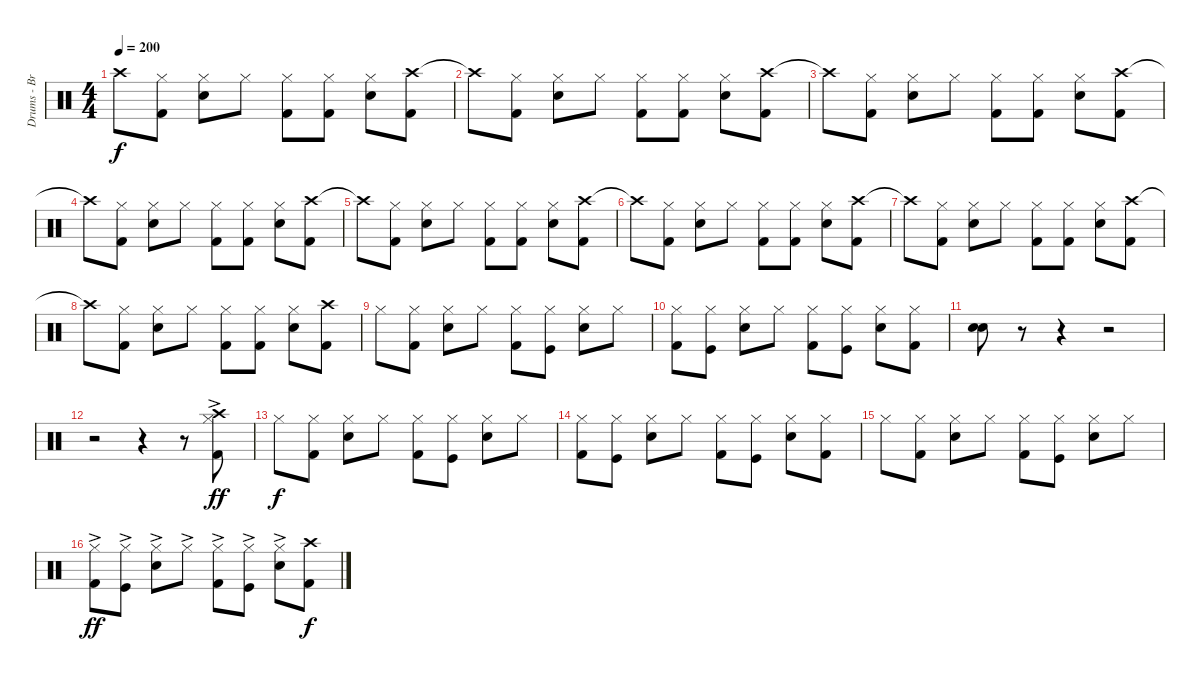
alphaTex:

\track ("Drums - Brandon Barnes" "Drums - Br") {instrument percussion}
\staff {score}
\articulation defaults
\ts (4 4)
\tempo 200
\clef neutral
\ks c "Crash high (hit)"{t}.8{dy f}
("Kick (hit) 2" "Hi-Hat (closed)").8 ("Hi-Hat (closed)" "Snare (hit) 2").8 "Hi-Hat (closed)".8 ("Hi-Hat (closed)" "Kick (hit) 2").8 ("Kick (hit) 2" "Hi-Hat (closed)").8 ("Hi-Hat (closed)" "Snare (hit) 2").8 ("Crash high (hit)" "Kick (hit) 2").8 |
"Crash high (hit)"{t}.8 ("Kick (hit) 2" "Hi-Hat (closed)").8 ("Hi-Hat (closed)" "Snare (hit) 2").8 "Hi-Hat (closed)".8 ("Hi-Hat (closed)" "Kick (hit) 2").8 ("Kick (hit) 2" "Hi-Hat (closed)").8 ("Hi-Hat (closed)" "Snare (hit) 2").8 ("Crash high (hit)" "Kick (hit) 2").8 |
"Crash high (hit)"{t}.8 ("Kick (hit) 2" "Hi-Hat (closed)").8 ("Hi-Hat (closed)" "Snare (hit) 2").8 "Hi-Hat (closed)".8 ("Hi-Hat (closed)" "Kick (hit) 2").8 ("Kick (hit) 2" "Hi-Hat (closed)").8 ("Hi-Hat (closed)" "Snare (hit) 2").8 ("Crash high (hit)" "Kick (hit) 2").8 |
"Crash high (hit)"{t}.8 ("Kick (hit) 2" "Hi-Hat (closed)").8 ("Hi-Hat (closed)" "Snare (hit) 2").8 "Hi-Hat (closed)".8 ("Hi-Hat (closed)" "Kick (hit) 2").8 ("Kick (hit) 2" "Hi-Hat (closed)").8 ("Hi-Hat (closed)" "Snare (hit) 2").8 ("Crash high (hit)" "Kick (hit) 2").8 |
"Crash high (hit)"{t}.8 ("Kick (hit) 2" "Hi-Hat (closed)").8 ("Hi-Hat (closed)" "Snare (hit) 2").8 "Hi-Hat (closed)".8 ("Hi-Hat (closed)" "Kick (hit) 2").8 ("Kick (hit) 2" "Hi-Hat (closed)").8 ("Hi-Hat (closed)" "Snare (hit) 2").8 ("Crash high (hit)" "Kick (hit) 2").8 |
"Crash high (hit)"{t}.8 ("Kick (hit) 2" "Hi-Hat (closed)").8 ("Hi-Hat (closed)" "Snare (hit) 2").8 "Hi-Hat (closed)".8 ("Hi-Hat (closed)" "Kick (hit) 2").8 ("Kick (hit) 2" "Hi-Hat (closed)").8 ("Hi-Hat (closed)" "Snare (hit) 2").8 ("Crash high (hit)" "Kick (hit) 2").8 |
"Crash high (hit)"{t}.8 ("Kick (hit) 2" "Hi-Hat (closed)").8 ("Hi-Hat (closed)" "Snare (hit) 2").8 "Hi-Hat (closed)".8 ("Hi-Hat (closed)" "Kick (hit) 2").8 ("Kick (hit) 2" "Hi-Hat (closed)").8 ("Hi-Hat (closed)" "Snare (hit) 2").8 ("Crash high (hit)" "Kick (hit) 2").8 |
"Crash high (hit)"{t}.8 ("Kick (hit) 2" "Hi-Hat (closed)").8 ("Hi-Hat (closed)" "Snare (hit) 2").8 "Hi-Hat (closed)".8 ("Hi-Hat (closed)" "Kick (hit) 2").8 ("Kick (hit) 2" "Hi-Hat (closed)").8 ("Hi-Hat (closed)" "Snare (hit) 2").8 ("Crash high (hit)" "Kick (hit) 2").8 |
"Hi-Hat (closed)".8 ("Hi-Hat (closed)" "Kick (hit) 2").8 ("Hi-Hat (closed)" "Snare (hit) 2").8 "Hi-Hat (closed)".8 ("Kick (hit) 2" "Hi-Hat (closed)").8 ("Hi-Hat (closed)" "Kick (hit)").8 ("Snare (hit) 2" "Hi-Hat (closed)").8 "Hi-Hat (closed)".8 |
("Kick (hit) 2" "Hi-Hat (closed)").8 ("Hi-Hat (closed)" "Kick (hit)").8 ("Snare (hit) 2" "Hi-Hat (closed)").8 "Hi-Hat (closed)".8 ("Kick (hit) 2" "Hi-Hat (closed)").8 ("Hi-Hat (closed)" "Kick (hit)").8 ("Snare (hit) 2" "Hi-Hat (closed)").8 ("Hi-Hat (closed)" "Kick (hit) 2").8 |
("Snare (hit) 2" "Electric Snare (hit)").8 r.8 r.4 r.2 |
r.2 r.4 r.8 ("Kick (hit) 2" "Hi-Hat (closed)"{ac} "Crash high (hit)").8{dy ff} |
"Hi-Hat (closed)".8{dy f} ("Hi-Hat (closed)" "Kick (hit) 2").8 ("Hi-Hat (closed)" "Snare (hit) 2").8 "Hi-Hat (closed)".8 ("Kick (hit) 2" "Hi-Hat (closed)").8 ("Hi-Hat (closed)" "Kick (hit)").8 ("Snare (hit) 2" "Hi-Hat (closed)").8 "Hi-Hat (closed)".8 |
("Kick (hit) 2" "Hi-Hat (closed)").8 ("Hi-Hat (closed)" "Kick (hit)").8 ("Snare (hit) 2" "Hi-Hat (closed)").8 "Hi-Hat (closed)".8 ("Kick (hit) 2" "Hi-Hat (closed)").8 ("Hi-Hat (closed)" "Kick (hit)").8 ("Snare (hit) 2" "Hi-Hat (closed)").8 ("Hi-Hat (closed)" "Kick (hit) 2").8 |
"Hi-Hat (closed)".8 ("Hi-Hat (closed)" "Kick (hit) 2").8 ("Hi-Hat (closed)" "Snare (hit) 2").8 "Hi-Hat (closed)".8 ("Kick (hit) 2" "Hi-Hat (closed)").8 ("Hi-Hat (closed)" "Kick (hit)").8 ("Snare (hit) 2" "Hi-Hat (closed)").8 "Hi-Hat (closed)".8 |
("Kick (hit) 2" "Hi-Hat (closed)"{ac}).8{dy ff} ("Hi-Hat (closed)"{ac} "Kick (hit)").8 ("Snare (hit) 2" "Hi-Hat (closed)"{ac}).8 "Hi-Hat (closed)"{ac}.8 ("Kick (hit) 2" "Hi-Hat (closed)"{ac}).8 ("Hi-Hat (closed)"{ac} "Kick (hit)").8 ("Snare (hit) 2" "Hi-Hat (closed)"{ac}).8 ("Kick (hit) 2" "Crash high (hit)").8{dy f}
